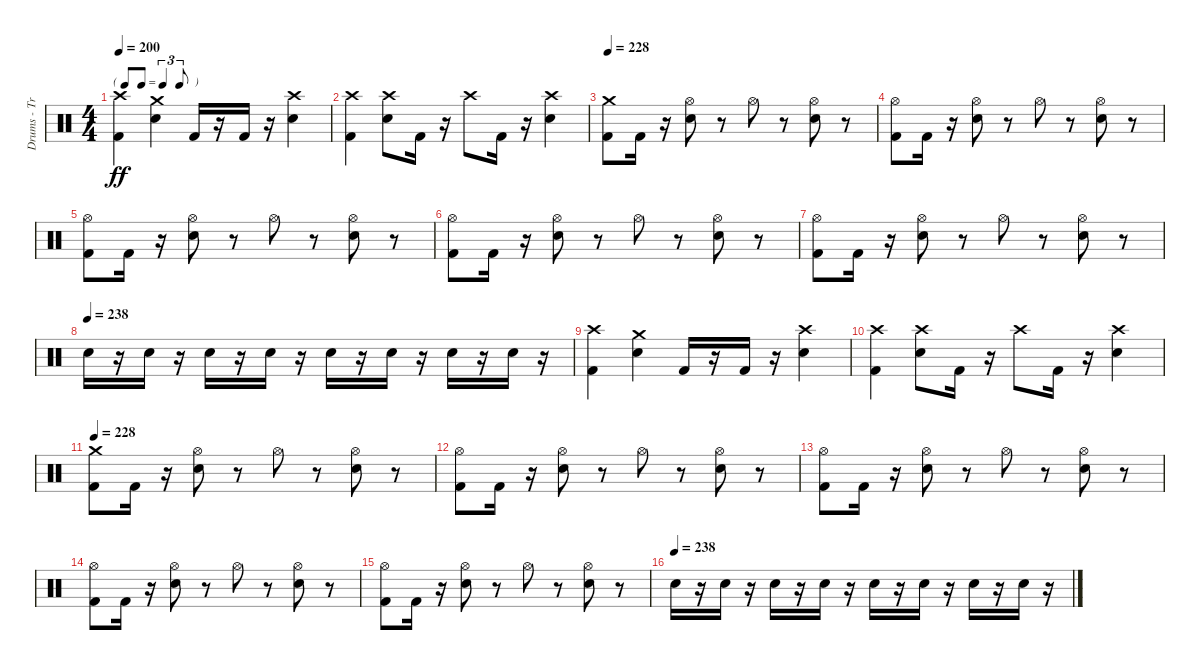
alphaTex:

\track ("Drums - Travis" "Drums - Tr") {instrument percussion}
\staff {score}
\articulation defaults
\ts (4 4)
\tf triplet8th
\tempo 200
\clef neutral
\ks c
("Crash high (hit)" "Kick (hit) 2").4{dy ff} ("Electric Snare (hit)" "Crash medium (hit)").4 "Kick (hit) 2".16 r.16 "Kick (hit) 2".16 r.16 ("Crash high (hit)" "Electric Snare (hit)").4 |
("Crash high (hit)" "Kick (hit) 2").4 ("Crash high (hit)" "Electric Snare (hit)").8 "Kick (hit) 2".16 r.16 "Crash high (hit)".8 "Kick (hit) 2".16 r.16 ("Crash high (hit)" "Electric Snare (hit)").4 |
\tempo 228
("Kick (hit) 2" "Crash medium (hit)").8 "Kick (hit) 2".16 r.16 ("Electric Snare (hit)" "Hi-Hat (open)").8 r.8 "Hi-Hat (open)".8 r.8 ("Electric Snare (hit)" "Hi-Hat (open)").8 r.8 |
("Kick (hit) 2" "Hi-Hat (open)").8 "Kick (hit) 2".16 r.16 ("Electric Snare (hit)" "Hi-Hat (open)").8 r.8 "Hi-Hat (open)".8 r.8 ("Electric Snare (hit)" "Hi-Hat (open)").8 r.8 |
("Kick (hit) 2" "Hi-Hat (open)").8 "Kick (hit) 2".16 r.16 ("Electric Snare (hit)" "Hi-Hat (open)").8 r.8 "Hi-Hat (open)".8 r.8 ("Electric Snare (hit)" "Hi-Hat (open)").8 r.8 |
("Kick (hit) 2" "Hi-Hat (open)").8 "Kick (hit) 2".16 r.16 ("Electric Snare (hit)" "Hi-Hat (open)").8 r.8 "Hi-Hat (open)".8 r.8 ("Electric Snare (hit)" "Hi-Hat (open)").8 r.8 |
("Kick (hit) 2" "Hi-Hat (open)").8 "Kick (hit) 2".16 r.16 ("Electric Snare (hit)" "Hi-Hat (open)").8 r.8 "Hi-Hat (open)".8 r.8 ("Electric Snare (hit)" "Hi-Hat (open)").8 r.8 |
\tempo (238)
"Electric Snare (hit)".16 r.16 "Electric Snare (hit)".16 r.16 "Electric Snare (hit)".16 r.16 "Electric Snare (hit)".16 r.16 "Electric Snare (hit)".16 r.16 "Electric Snare (hit)".16 r.16 "Electric Snare (hit)".16 r.16 "Electric Snare (hit)".16 r.16 |
("Crash high (hit)" "Kick (hit) 2").4 ("Electric Snare (hit)" "Crash medium (hit)").4 "Kick (hit) 2".16 r.16 "Kick (hit) 2".16 r.16 ("Crash high (hit)" "Electric Snare (hit)").4 |
("Crash high (hit)" "Kick (hit) 2").4 ("Crash high (hit)" "Electric Snare (hit)").8 "Kick (hit) 2".16 r.16 "Crash high (hit)".8 "Kick (hit) 2".16 r.16 ("Crash high (hit)" "Electric Snare (hit)").4 |
\tempo 228
("Kick (hit) 2" "Crash medium (hit)").8 "Kick (hit) 2".16 r.16 ("Electric Snare (hit)" "Hi-Hat (open)").8 r.8 "Hi-Hat (open)".8 r.8 ("Electric Snare (hit)" "Hi-Hat (open)").8 r.8 |
("Kick (hit) 2" "Hi-Hat (open)").8 "Kick (hit) 2".16 r.16 ("Electric Snare (hit)" "Hi-Hat (open)").8 r.8 "Hi-Hat (open)".8 r.8 ("Electric Snare (hit)" "Hi-Hat (open)").8 r.8 |
("Kick (hit) 2" "Hi-Hat (open)").8 "Kick (hit) 2".16 r.16 ("Electric Snare (hit)" "Hi-Hat (open)").8 r.8 "Hi-Hat (open)".8 r.8 ("Electric Snare (hit)" "Hi-Hat (open)").8 r.8 |
("Kick (hit) 2" "Hi-Hat (open)").8 "Kick (hit) 2".16 r.16 ("Electric Snare (hit)" "Hi-Hat (open)").8 r.8 "Hi-Hat (open)".8 r.8 ("Electric Snare (hit)" "Hi-Hat (open)").8 r.8 |
("Kick (hit) 2" "Hi-Hat (open)").8 "Kick (hit) 2".16 r.16 ("Electric Snare (hit)" "Hi-Hat (open)").8 r.8 "Hi-Hat (open)".8 r.8 ("Electric Snare (hit)" "Hi-Hat (open)").8 r.8 |
\tempo (238)
"Electric Snare (hit)".16 r.16 "Electric Snare (hit)".16 r.16 "Electric Snare (hit)".16 r.16 "Electric Snare (hit)".16 r.16 "Electric Snare (hit)".16 r.16 "Electric Snare (hit)".16 r.16 "Electric Snare (hit)".16 r.16 "Electric Snare (hit)".16 r.16
